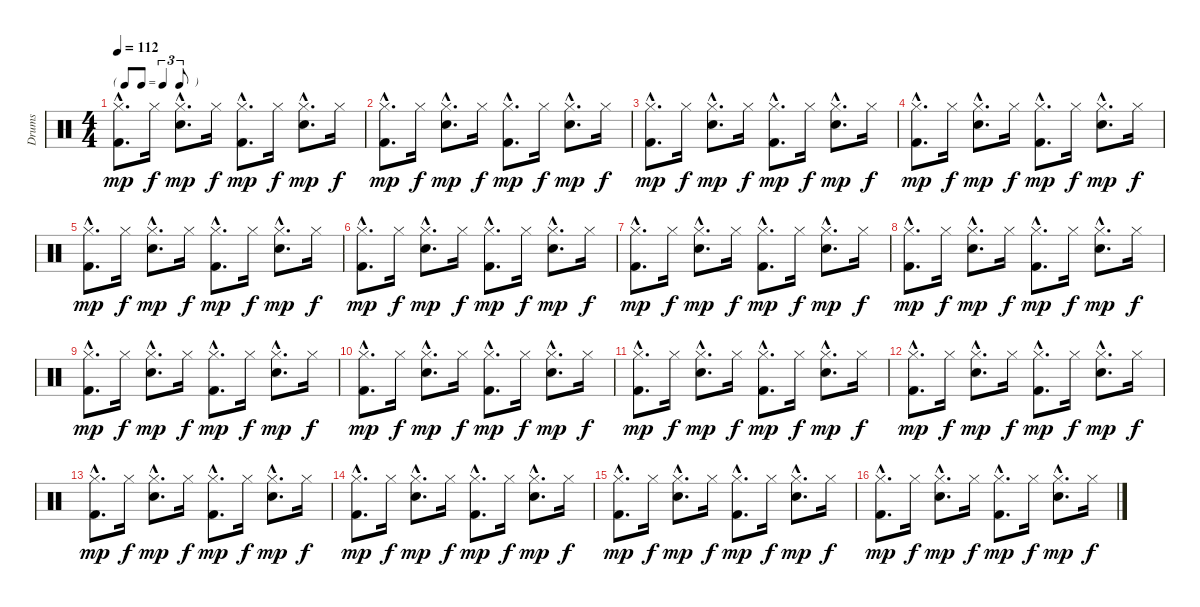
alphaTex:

\track ("Drums" "Drums") {instrument percussion}
\staff {score}
\articulation defaults
\ts (4 4)
\tf triplet8th
\tempo 112
\clef neutral
\ks c
("Kick (hit) 2"{hac} "Hi-Hat (closed)"{hac}).8{d dy mp} "Hi-Hat (closed)".16{dy f} ("Snare (hit) 2"{hac} "Hi-Hat (closed)"{hac}).8{d dy mp} "Hi-Hat (closed)".16{dy f} ("Kick (hit) 2"{hac} "Hi-Hat (closed)"{hac}).8{d dy mp} "Hi-Hat (closed)".16{dy f} ("Snare (hit) 2"{hac} "Hi-Hat (closed)"{hac}).8{d dy mp} "Hi-Hat (closed)".16{dy f} |
("Kick (hit) 2"{hac} "Hi-Hat (closed)"{hac}).8{d dy mp} "Hi-Hat (closed)".16{dy f} ("Snare (hit) 2"{hac} "Hi-Hat (closed)"{hac}).8{d dy mp} "Hi-Hat (closed)".16{dy f} ("Kick (hit) 2"{hac} "Hi-Hat (closed)"{hac}).8{d dy mp} "Hi-Hat (closed)".16{dy f} ("Snare (hit) 2"{hac} "Hi-Hat (closed)"{hac}).8{d dy mp} "Hi-Hat (closed)".16{dy f} |
("Kick (hit) 2"{hac} "Hi-Hat (closed)"{hac}).8{d dy mp} "Hi-Hat (closed)".16{dy f} ("Snare (hit) 2"{hac} "Hi-Hat (closed)"{hac}).8{d dy mp} "Hi-Hat (closed)".16{dy f} ("Kick (hit) 2"{hac} "Hi-Hat (closed)"{hac}).8{d dy mp} "Hi-Hat (closed)".16{dy f} ("Snare (hit) 2"{hac} "Hi-Hat (closed)"{hac}).8{d dy mp} "Hi-Hat (closed)".16{dy f} |
("Kick (hit) 2"{hac} "Hi-Hat (closed)"{hac}).8{d dy mp} "Hi-Hat (closed)".16{dy f} ("Snare (hit) 2"{hac} "Hi-Hat (closed)"{hac}).8{d dy mp} "Hi-Hat (closed)".16{dy f} ("Kick (hit) 2"{hac} "Hi-Hat (closed)"{hac}).8{d dy mp} "Hi-Hat (closed)".16{dy f} ("Snare (hit) 2"{hac} "Hi-Hat (closed)"{hac}).8{d dy mp} "Hi-Hat (closed)".16{dy f} |
("Kick (hit) 2"{hac} "Hi-Hat (closed)"{hac}).8{d dy mp} "Hi-Hat (closed)".16{dy f} ("Snare (hit) 2"{hac} "Hi-Hat (closed)"{hac}).8{d dy mp} "Hi-Hat (closed)".16{dy f} ("Kick (hit) 2"{hac} "Hi-Hat (closed)"{hac}).8{d dy mp} "Hi-Hat (closed)".16{dy f} ("Snare (hit) 2"{hac} "Hi-Hat (closed)"{hac}).8{d dy mp} "Hi-Hat (closed)".16{dy f} |
("Kick (hit) 2"{hac} "Hi-Hat (closed)"{hac}).8{d dy mp} "Hi-Hat (closed)".16{dy f} ("Snare (hit) 2"{hac} "Hi-Hat (closed)"{hac}).8{d dy mp} "Hi-Hat (closed)".16{dy f} ("Kick (hit) 2"{hac} "Hi-Hat (closed)"{hac}).8{d dy mp} "Hi-Hat (closed)".16{dy f} ("Snare (hit) 2"{hac} "Hi-Hat (closed)"{hac}).8{d dy mp} "Hi-Hat (closed)".16{dy f} |
("Kick (hit) 2"{hac} "Hi-Hat (closed)"{hac}).8{d dy mp} "Hi-Hat (closed)".16{dy f} ("Snare (hit) 2"{hac} "Hi-Hat (closed)"{hac}).8{d dy mp} "Hi-Hat (closed)".16{dy f} ("Kick (hit) 2"{hac} "Hi-Hat (closed)"{hac}).8{d dy mp} "Hi-Hat (closed)".16{dy f} ("Snare (hit) 2"{hac} "Hi-Hat (closed)"{hac}).8{d dy mp} "Hi-Hat (closed)".16{dy f} |
("Kick (hit) 2"{hac} "Hi-Hat (closed)"{hac}).8{d dy mp} "Hi-Hat (closed)".16{dy f} ("Snare (hit) 2"{hac} "Hi-Hat (closed)"{hac}).8{d dy mp} "Hi-Hat (closed)".16{dy f} ("Kick (hit) 2"{hac} "Hi-Hat (closed)"{hac}).8{d dy mp} "Hi-Hat (closed)".16{dy f} ("Snare (hit) 2"{hac} "Hi-Hat (closed)"{hac}).8{d dy mp} "Hi-Hat (closed)".16{dy f} |
("Kick (hit) 2"{hac} "Hi-Hat (closed)"{hac}).8{d dy mp} "Hi-Hat (closed)".16{dy f} ("Snare (hit) 2"{hac} "Hi-Hat (closed)"{hac}).8{d dy mp} "Hi-Hat (closed)".16{dy f} ("Kick (hit) 2"{hac} "Hi-Hat (closed)"{hac}).8{d dy mp} "Hi-Hat (closed)".16{dy f} ("Snare (hit) 2"{hac} "Hi-Hat (closed)"{hac}).8{d dy mp} "Hi-Hat (closed)".16{dy f} |
("Kick (hit) 2"{hac} "Hi-Hat (closed)"{hac}).8{d dy mp} "Hi-Hat (closed)".16{dy f} ("Snare (hit) 2"{hac} "Hi-Hat (closed)"{hac}).8{d dy mp} "Hi-Hat (closed)".16{dy f} ("Kick (hit) 2"{hac} "Hi-Hat (closed)"{hac}).8{d dy mp} "Hi-Hat (closed)".16{dy f} ("Snare (hit) 2"{hac} "Hi-Hat (closed)"{hac}).8{d dy mp} "Hi-Hat (closed)".16{dy f} |
("Kick (hit) 2"{hac} "Hi-Hat (closed)"{hac}).8{d dy mp} "Hi-Hat (closed)".16{dy f} ("Snare (hit) 2"{hac} "Hi-Hat (closed)"{hac}).8{d dy mp} "Hi-Hat (closed)".16{dy f} ("Kick (hit) 2"{hac} "Hi-Hat (closed)"{hac}).8{d dy mp} "Hi-Hat (closed)".16{dy f} ("Snare (hit) 2"{hac} "Hi-Hat (closed)"{hac}).8{d dy mp} "Hi-Hat (closed)".16{dy f} |
("Kick (hit) 2"{hac} "Hi-Hat (closed)"{hac}).8{d dy mp} "Hi-Hat (closed)".16{dy f} ("Snare (hit) 2"{hac} "Hi-Hat (closed)"{hac}).8{d dy mp} "Hi-Hat (closed)".16{dy f} ("Kick (hit) 2"{hac} "Hi-Hat (closed)"{hac}).8{d dy mp} "Hi-Hat (closed)".16{dy f} ("Snare (hit) 2"{hac} "Hi-Hat (closed)"{hac}).8{d dy mp} "Hi-Hat (closed)".16{dy f} |
("Kick (hit) 2"{hac} "Hi-Hat (closed)"{hac}).8{d dy mp} "Hi-Hat (closed)".16{dy f} ("Snare (hit) 2"{hac} "Hi-Hat (closed)"{hac}).8{d dy mp} "Hi-Hat (closed)".16{dy f} ("Kick (hit) 2"{hac} "Hi-Hat (closed)"{hac}).8{d dy mp} "Hi-Hat (closed)".16{dy f} ("Snare (hit) 2"{hac} "Hi-Hat (closed)"{hac}).8{d dy mp} "Hi-Hat (closed)".16{dy f} |
("Kick (hit) 2"{hac} "Hi-Hat (closed)"{hac}).8{d dy mp} "Hi-Hat (closed)".16{dy f} ("Snare (hit) 2"{hac} "Hi-Hat (closed)"{hac}).8{d dy mp} "Hi-Hat (closed)".16{dy f} ("Kick (hit) 2"{hac} "Hi-Hat (closed)"{hac}).8{d dy mp} "Hi-Hat (closed)".16{dy f} ("Snare (hit) 2"{hac} "Hi-Hat (closed)"{hac}).8{d dy mp} "Hi-Hat (closed)".16{dy f} |
("Kick (hit) 2"{hac} "Hi-Hat (closed)"{hac}).8{d dy mp} "Hi-Hat (closed)".16{dy f} ("Snare (hit) 2"{hac} "Hi-Hat (closed)"{hac}).8{d dy mp} "Hi-Hat (closed)".16{dy f} ("Kick (hit) 2"{hac} "Hi-Hat (closed)"{hac}).8{d dy mp} "Hi-Hat (closed)".16{dy f} ("Snare (hit) 2"{hac} "Hi-Hat (closed)"{hac}).8{d dy mp} "Hi-Hat (closed)".16{dy f} |
("Kick (hit) 2"{hac} "Hi-Hat (closed)"{hac}).8{d dy mp} "Hi-Hat (closed)".16{dy f} ("Snare (hit) 2"{hac} "Hi-Hat (closed)"{hac}).8{d dy mp} "Hi-Hat (closed)".16{dy f} ("Kick (hit) 2"{hac} "Hi-Hat (closed)"{hac}).8{d dy mp} "Hi-Hat (closed)".16{dy f} ("Snare (hit) 2"{hac} "Hi-Hat (closed)"{hac}).8{d dy mp} "Hi-Hat (closed)".16{dy f}
